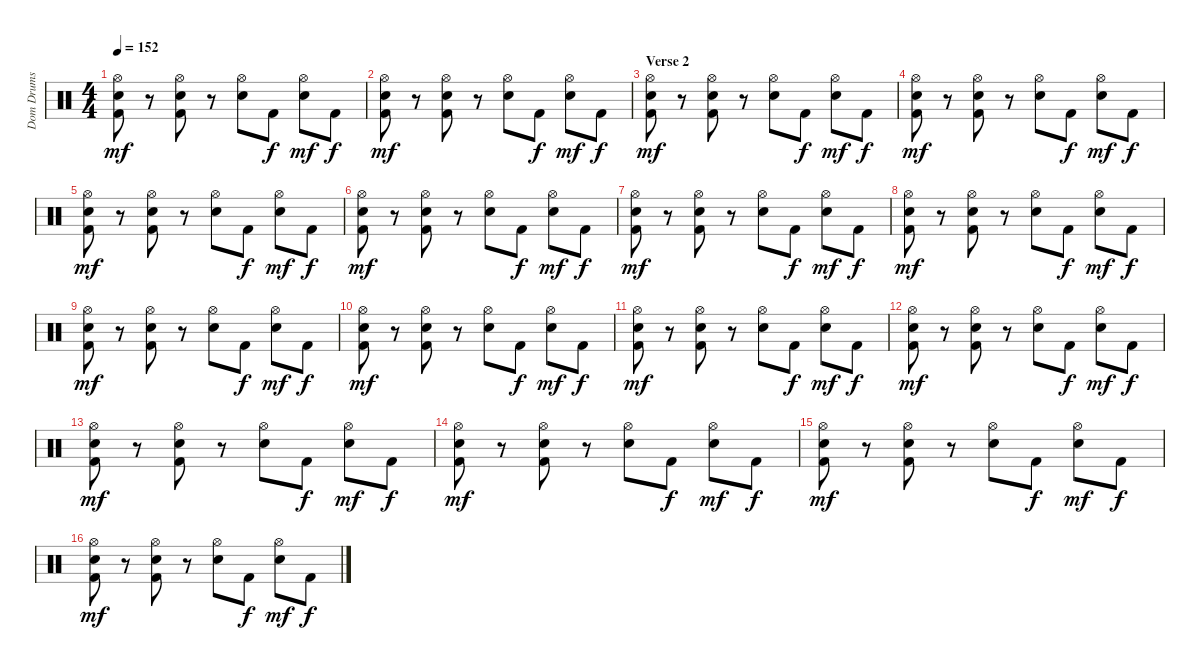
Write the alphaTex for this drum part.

\track ("Dom Drums" "Dom Drums") {instrument percussion}
\staff {score}
\articulation defaults
\ts (4 4)
\tempo 152
\clef neutral
\ks c
("Hi-Hat (open)" "Kick (hit) 2" "Snare (hit) 2").8{dy mf} r.8 ("Hi-Hat (open)" "Kick (hit) 2" "Snare (hit) 2").8 r.8 ("Hi-Hat (open)" "Snare (hit) 2").8 "Kick (hit) 2".8{dy f} ("Hi-Hat (open)" "Snare (hit) 2").8{dy mf} "Kick (hit) 2".8{dy f} |
("Hi-Hat (open)" "Kick (hit) 2" "Snare (hit) 2").8{dy mf} r.8 ("Hi-Hat (open)" "Kick (hit) 2" "Snare (hit) 2").8 r.8 ("Hi-Hat (open)" "Snare (hit) 2").8 "Kick (hit) 2".8{dy f} ("Hi-Hat (open)" "Snare (hit) 2").8{dy mf} "Kick (hit) 2".8{dy f} |
\section ("" "Verse 2")
("Hi-Hat (open)" "Kick (hit) 2" "Snare (hit) 2").8{dy mf} r.8 ("Hi-Hat (open)" "Kick (hit) 2" "Snare (hit) 2").8 r.8 ("Hi-Hat (open)" "Snare (hit) 2").8 "Kick (hit) 2".8{dy f} ("Hi-Hat (open)" "Snare (hit) 2").8{dy mf} "Kick (hit) 2".8{dy f} |
("Hi-Hat (open)" "Kick (hit) 2" "Snare (hit) 2").8{dy mf} r.8 ("Hi-Hat (open)" "Kick (hit) 2" "Snare (hit) 2").8 r.8 ("Hi-Hat (open)" "Snare (hit) 2").8 "Kick (hit) 2".8{dy f} ("Hi-Hat (open)" "Snare (hit) 2").8{dy mf} "Kick (hit) 2".8{dy f} |
("Hi-Hat (open)" "Kick (hit) 2" "Snare (hit) 2").8{dy mf} r.8 ("Hi-Hat (open)" "Kick (hit) 2" "Snare (hit) 2").8 r.8 ("Hi-Hat (open)" "Snare (hit) 2").8 "Kick (hit) 2".8{dy f} ("Hi-Hat (open)" "Snare (hit) 2").8{dy mf} "Kick (hit) 2".8{dy f} |
("Hi-Hat (open)" "Kick (hit) 2" "Snare (hit) 2").8{dy mf} r.8 ("Hi-Hat (open)" "Kick (hit) 2" "Snare (hit) 2").8 r.8 ("Hi-Hat (open)" "Snare (hit) 2").8 "Kick (hit) 2".8{dy f} ("Hi-Hat (open)" "Snare (hit) 2").8{dy mf} "Kick (hit) 2".8{dy f} |
("Hi-Hat (open)" "Kick (hit) 2" "Snare (hit) 2").8{dy mf} r.8 ("Hi-Hat (open)" "Kick (hit) 2" "Snare (hit) 2").8 r.8 ("Hi-Hat (open)" "Snare (hit) 2").8 "Kick (hit) 2".8{dy f} ("Hi-Hat (open)" "Snare (hit) 2").8{dy mf} "Kick (hit) 2".8{dy f} |
("Hi-Hat (open)" "Kick (hit) 2" "Snare (hit) 2").8{dy mf} r.8 ("Hi-Hat (open)" "Kick (hit) 2" "Snare (hit) 2").8 r.8 ("Hi-Hat (open)" "Snare (hit) 2").8 "Kick (hit) 2".8{dy f} ("Hi-Hat (open)" "Snare (hit) 2").8{dy mf} "Kick (hit) 2".8{dy f} |
("Hi-Hat (open)" "Kick (hit) 2" "Snare (hit) 2").8{dy mf} r.8 ("Hi-Hat (open)" "Kick (hit) 2" "Snare (hit) 2").8 r.8 ("Hi-Hat (open)" "Snare (hit) 2").8 "Kick (hit) 2".8{dy f} ("Hi-Hat (open)" "Snare (hit) 2").8{dy mf} "Kick (hit) 2".8{dy f} |
("Hi-Hat (open)" "Kick (hit) 2" "Snare (hit) 2").8{dy mf} r.8 ("Hi-Hat (open)" "Kick (hit) 2" "Snare (hit) 2").8 r.8 ("Hi-Hat (open)" "Snare (hit) 2").8 "Kick (hit) 2".8{dy f} ("Hi-Hat (open)" "Snare (hit) 2").8{dy mf} "Kick (hit) 2".8{dy f} |
("Hi-Hat (open)" "Kick (hit) 2" "Snare (hit) 2").8{dy mf} r.8 ("Hi-Hat (open)" "Kick (hit) 2" "Snare (hit) 2").8 r.8 ("Hi-Hat (open)" "Snare (hit) 2").8 "Kick (hit) 2".8{dy f} ("Hi-Hat (open)" "Snare (hit) 2").8{dy mf} "Kick (hit) 2".8{dy f} |
("Hi-Hat (open)" "Kick (hit) 2" "Snare (hit) 2").8{dy mf} r.8 ("Hi-Hat (open)" "Kick (hit) 2" "Snare (hit) 2").8 r.8 ("Hi-Hat (open)" "Snare (hit) 2").8 "Kick (hit) 2".8{dy f} ("Hi-Hat (open)" "Snare (hit) 2").8{dy mf} "Kick (hit) 2".8{dy f} |
("Hi-Hat (open)" "Kick (hit) 2" "Snare (hit) 2").8{dy mf} r.8 ("Hi-Hat (open)" "Kick (hit) 2" "Snare (hit) 2").8 r.8 ("Hi-Hat (open)" "Snare (hit) 2").8 "Kick (hit) 2".8{dy f} ("Hi-Hat (open)" "Snare (hit) 2").8{dy mf} "Kick (hit) 2".8{dy f} |
("Hi-Hat (open)" "Kick (hit) 2" "Snare (hit) 2").8{dy mf} r.8 ("Hi-Hat (open)" "Kick (hit) 2" "Snare (hit) 2").8 r.8 ("Hi-Hat (open)" "Snare (hit) 2").8 "Kick (hit) 2".8{dy f} ("Hi-Hat (open)" "Snare (hit) 2").8{dy mf} "Kick (hit) 2".8{dy f} |
("Hi-Hat (open)" "Kick (hit) 2" "Snare (hit) 2").8{dy mf} r.8 ("Hi-Hat (open)" "Kick (hit) 2" "Snare (hit) 2").8 r.8 ("Hi-Hat (open)" "Snare (hit) 2").8 "Kick (hit) 2".8{dy f} ("Hi-Hat (open)" "Snare (hit) 2").8{dy mf} "Kick (hit) 2".8{dy f} |
("Hi-Hat (open)" "Kick (hit) 2" "Snare (hit) 2").8{dy mf} r.8 ("Hi-Hat (open)" "Kick (hit) 2" "Snare (hit) 2").8 r.8 ("Hi-Hat (open)" "Snare (hit) 2").8 "Kick (hit) 2".8{dy f} ("Hi-Hat (open)" "Snare (hit) 2").8{dy mf} "Kick (hit) 2".8{dy f}
